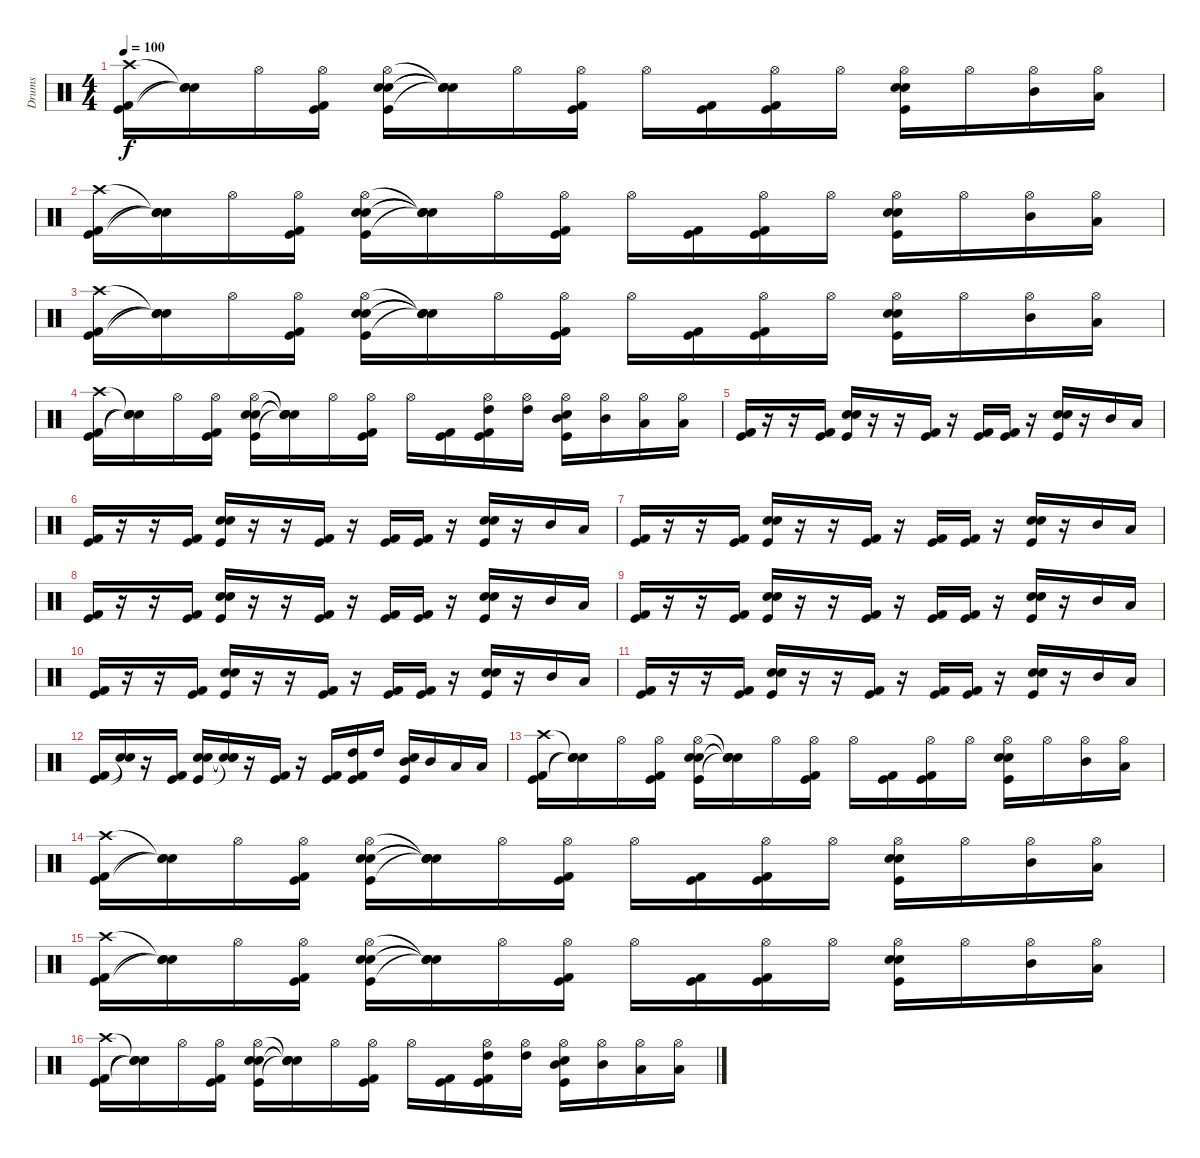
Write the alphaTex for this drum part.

\track ("Drums" "Drums") {instrument percussion}
\staff {score}
\articulation defaults
\ts (4 4)
\tempo 100
\clef neutral
\ks c
("Kick (hit) 2" "Kick (hit)" "Crash high (hit)").16{dy f} ("Snare (hit)"{t} "Snare (hit)"{t} "Snare (hit)"{t}).16 "Hi-Hat (open)".16 ("Kick (hit)" "Kick (hit) 2" "Hi-Hat (open)").16 ("Snare (hit) 2" "Kick (hit)" "Electric Snare (hit)" "Hi-Hat (open)").16 ("Snare (hit)"{t} "Snare (hit)"{t} "Snare (hit)"{t} "Snare (hit)"{t}).16 "Hi-Hat (open)".16 ("Kick (hit)" "Kick (hit) 2" "Hi-Hat (open)").16 "Hi-Hat (open)".16 ("Kick (hit)" "Kick (hit) 2").16 ("Kick (hit)" "Kick (hit) 2" "Hi-Hat (open)").16 "Hi-Hat (open)".16 ("Snare (hit) 2" "Kick (hit)" "Electric Snare (hit)" "Hi-Hat (open)").16 "Hi-Hat (open)".16 ("Mid Tom (hit)" "Hi-Hat (open)").16 ("Low Tom (hit)" "Hi-Hat (open)").16 |
("Kick (hit) 2" "Kick (hit)" "Crash high (hit)").16 ("Snare (hit)"{t} "Snare (hit)"{t} "Snare (hit)"{t}).16 "Hi-Hat (open)".16 ("Kick (hit)" "Kick (hit) 2" "Hi-Hat (open)").16 ("Snare (hit) 2" "Kick (hit)" "Electric Snare (hit)" "Hi-Hat (open)").16 ("Snare (hit)"{t} "Snare (hit)"{t} "Snare (hit)"{t} "Snare (hit)"{t}).16 "Hi-Hat (open)".16 ("Kick (hit)" "Kick (hit) 2" "Hi-Hat (open)").16 "Hi-Hat (open)".16 ("Kick (hit)" "Kick (hit) 2").16 ("Kick (hit)" "Kick (hit) 2" "Hi-Hat (open)").16 "Hi-Hat (open)".16 ("Snare (hit) 2" "Kick (hit)" "Electric Snare (hit)" "Hi-Hat (open)").16 "Hi-Hat (open)".16 ("Mid Tom (hit)" "Hi-Hat (open)").16 ("Low Tom (hit)" "Hi-Hat (open)").16 |
("Kick (hit) 2" "Kick (hit)" "Crash high (hit)").16 ("Snare (hit)"{t} "Snare (hit)"{t} "Snare (hit)"{t}).16 "Hi-Hat (open)".16 ("Kick (hit)" "Kick (hit) 2" "Hi-Hat (open)").16 ("Snare (hit) 2" "Kick (hit)" "Electric Snare (hit)" "Hi-Hat (open)").16 ("Snare (hit)"{t} "Snare (hit)"{t} "Snare (hit)"{t} "Snare (hit)"{t}).16 "Hi-Hat (open)".16 ("Kick (hit)" "Kick (hit) 2" "Hi-Hat (open)").16 "Hi-Hat (open)".16 ("Kick (hit)" "Kick (hit) 2").16 ("Kick (hit)" "Kick (hit) 2" "Hi-Hat (open)").16 "Hi-Hat (open)".16 ("Snare (hit) 2" "Kick (hit)" "Electric Snare (hit)" "Hi-Hat (open)").16 "Hi-Hat (open)".16 ("Mid Tom (hit)" "Hi-Hat (open)").16 ("Low Tom (hit)" "Hi-Hat (open)").16 |
("Kick (hit) 2" "Kick (hit)" "Crash high (hit)").16 ("Snare (hit)"{t} "Snare (hit)"{t} "Snare (hit)"{t}).16 "Hi-Hat (open)".16 ("Kick (hit)" "Kick (hit) 2" "Hi-Hat (open)").16 ("Snare (hit) 2" "Kick (hit)" "Electric Snare (hit)" "Hi-Hat (open)").16 ("Snare (hit)"{t} "Snare (hit)"{t} "Snare (hit)"{t} "Snare (hit)"{t}).16 "Hi-Hat (open)".16 ("Kick (hit)" "Kick (hit) 2" "Hi-Hat (open)").16 "Hi-Hat (open)".16 ("Kick (hit)" "Kick (hit) 2").16 ("High Tom (hit)" "Kick (hit)" "Kick (hit) 2" "Hi-Hat (open)").16 ("High Tom (hit)" "Hi-Hat (open)").16 ("Mid Tom (hit)" "Kick (hit)" "Electric Snare (hit)" "Hi-Hat (open)").16 ("Mid Tom (hit)" "Hi-Hat (open)").16 ("Low Tom (hit)" "Hi-Hat (open)").16 ("Low Floor Tom (hit)" "Hi-Hat (open)").16 |
("Kick (hit) 2" "Kick (hit)").16 r.16 r.16 ("Kick (hit)" "Kick (hit) 2").16 ("Snare (hit) 2" "Kick (hit)" "Electric Snare (hit)").16 r.16 r.16 ("Kick (hit)" "Kick (hit) 2").16 r.16 ("Kick (hit)" "Kick (hit) 2").16 ("Kick (hit)" "Kick (hit) 2").16 r.16 ("Snare (hit) 2" "Kick (hit)" "Electric Snare (hit)").16 r.16 "Mid Tom (hit)".16 "Low Tom (hit)".16 |
("Kick (hit) 2" "Kick (hit)").16 r.16 r.16 ("Kick (hit)" "Kick (hit) 2").16 ("Snare (hit) 2" "Kick (hit)" "Electric Snare (hit)").16 r.16 r.16 ("Kick (hit)" "Kick (hit) 2").16 r.16 ("Kick (hit)" "Kick (hit) 2").16 ("Kick (hit)" "Kick (hit) 2").16 r.16 ("Snare (hit) 2" "Kick (hit)" "Electric Snare (hit)").16 r.16 "Mid Tom (hit)".16 "Low Tom (hit)".16 |
("Kick (hit) 2" "Kick (hit)").16 r.16 r.16 ("Kick (hit)" "Kick (hit) 2").16 ("Snare (hit) 2" "Kick (hit)" "Electric Snare (hit)").16 r.16 r.16 ("Kick (hit)" "Kick (hit) 2").16 r.16 ("Kick (hit)" "Kick (hit) 2").16 ("Kick (hit)" "Kick (hit) 2").16 r.16 ("Snare (hit) 2" "Kick (hit)" "Electric Snare (hit)").16 r.16 "Mid Tom (hit)".16 "Low Tom (hit)".16 |
("Kick (hit) 2" "Kick (hit)").16 r.16 r.16 ("Kick (hit)" "Kick (hit) 2").16 ("Snare (hit) 2" "Kick (hit)" "Electric Snare (hit)").16 r.16 r.16 ("Kick (hit)" "Kick (hit) 2").16 r.16 ("Kick (hit)" "Kick (hit) 2").16 ("Kick (hit)" "Kick (hit) 2").16 r.16 ("Snare (hit) 2" "Kick (hit)" "Electric Snare (hit)").16 r.16 "Mid Tom (hit)".16 "Low Tom (hit)".16 |
("Kick (hit) 2" "Kick (hit)").16 r.16 r.16 ("Kick (hit)" "Kick (hit) 2").16 ("Snare (hit) 2" "Kick (hit)" "Electric Snare (hit)").16 r.16 r.16 ("Kick (hit)" "Kick (hit) 2").16 r.16 ("Kick (hit)" "Kick (hit) 2").16 ("Kick (hit)" "Kick (hit) 2").16 r.16 ("Snare (hit) 2" "Kick (hit)" "Electric Snare (hit)").16 r.16 "Mid Tom (hit)".16 "Low Tom (hit)".16 |
("Kick (hit) 2" "Kick (hit)").16 r.16 r.16 ("Kick (hit)" "Kick (hit) 2").16 ("Snare (hit) 2" "Kick (hit)" "Electric Snare (hit)").16 r.16 r.16 ("Kick (hit)" "Kick (hit) 2").16 r.16 ("Kick (hit)" "Kick (hit) 2").16 ("Kick (hit)" "Kick (hit) 2").16 r.16 ("Snare (hit) 2" "Kick (hit)" "Electric Snare (hit)").16 r.16 "Mid Tom (hit)".16 "Low Tom (hit)".16 |
("Kick (hit) 2" "Kick (hit)").16 r.16 r.16 ("Kick (hit)" "Kick (hit) 2").16 ("Snare (hit) 2" "Kick (hit)" "Electric Snare (hit)").16 r.16 r.16 ("Kick (hit)" "Kick (hit) 2").16 r.16 ("Kick (hit)" "Kick (hit) 2").16 ("Kick (hit)" "Kick (hit) 2").16 r.16 ("Snare (hit) 2" "Kick (hit)" "Electric Snare (hit)").16 r.16 "Mid Tom (hit)".16 "Low Tom (hit)".16 |
("Kick (hit) 2" "Kick (hit)").16 ("Snare (hit)"{t} "Snare (hit)"{t}).16 r.16 ("Kick (hit)" "Kick (hit) 2").16 ("Snare (hit) 2" "Kick (hit)" "Electric Snare (hit)").16 ("Snare (hit)"{t} "Snare (hit)"{t} "Snare (hit)"{t}).16 r.16 ("Kick (hit)" "Kick (hit) 2").16 r.16 ("Kick (hit)" "Kick (hit) 2").16 ("High Tom (hit)" "Kick (hit)" "Kick (hit) 2").16 "High Tom (hit)".16 ("Mid Tom (hit)" "Kick (hit)" "Electric Snare (hit)").16 "Mid Tom (hit)".16 "Low Tom (hit)".16 "Low Floor Tom (hit)".16 |
("Kick (hit) 2" "Kick (hit)" "Crash high (hit)").16 ("Snare (hit)"{t} "Snare (hit)"{t} "Snare (hit)"{t}).16 "Hi-Hat (open)".16 ("Kick (hit)" "Kick (hit) 2" "Hi-Hat (open)").16 ("Snare (hit) 2" "Kick (hit)" "Electric Snare (hit)" "Hi-Hat (open)").16 ("Snare (hit)"{t} "Snare (hit)"{t} "Snare (hit)"{t} "Snare (hit)"{t}).16 "Hi-Hat (open)".16 ("Kick (hit)" "Kick (hit) 2" "Hi-Hat (open)").16 "Hi-Hat (open)".16 ("Kick (hit)" "Kick (hit) 2").16 ("Kick (hit)" "Kick (hit) 2" "Hi-Hat (open)").16 "Hi-Hat (open)".16 ("Snare (hit) 2" "Kick (hit)" "Electric Snare (hit)" "Hi-Hat (open)").16 "Hi-Hat (open)".16 ("Mid Tom (hit)" "Hi-Hat (open)").16 ("Low Tom (hit)" "Hi-Hat (open)").16 |
("Kick (hit) 2" "Kick (hit)" "Crash high (hit)").16 ("Snare (hit)"{t} "Snare (hit)"{t} "Snare (hit)"{t}).16 "Hi-Hat (open)".16 ("Kick (hit)" "Kick (hit) 2" "Hi-Hat (open)").16 ("Snare (hit) 2" "Kick (hit)" "Electric Snare (hit)" "Hi-Hat (open)").16 ("Snare (hit)"{t} "Snare (hit)"{t} "Snare (hit)"{t} "Snare (hit)"{t}).16 "Hi-Hat (open)".16 ("Kick (hit)" "Kick (hit) 2" "Hi-Hat (open)").16 "Hi-Hat (open)".16 ("Kick (hit)" "Kick (hit) 2").16 ("Kick (hit)" "Kick (hit) 2" "Hi-Hat (open)").16 "Hi-Hat (open)".16 ("Snare (hit) 2" "Kick (hit)" "Electric Snare (hit)" "Hi-Hat (open)").16 "Hi-Hat (open)".16 ("Mid Tom (hit)" "Hi-Hat (open)").16 ("Low Tom (hit)" "Hi-Hat (open)").16 |
("Kick (hit) 2" "Kick (hit)" "Crash high (hit)").16 ("Snare (hit)"{t} "Snare (hit)"{t} "Snare (hit)"{t}).16 "Hi-Hat (open)".16 ("Kick (hit)" "Kick (hit) 2" "Hi-Hat (open)").16 ("Snare (hit) 2" "Kick (hit)" "Electric Snare (hit)" "Hi-Hat (open)").16 ("Snare (hit)"{t} "Snare (hit)"{t} "Snare (hit)"{t} "Snare (hit)"{t}).16 "Hi-Hat (open)".16 ("Kick (hit)" "Kick (hit) 2" "Hi-Hat (open)").16 "Hi-Hat (open)".16 ("Kick (hit)" "Kick (hit) 2").16 ("Kick (hit)" "Kick (hit) 2" "Hi-Hat (open)").16 "Hi-Hat (open)".16 ("Snare (hit) 2" "Kick (hit)" "Electric Snare (hit)" "Hi-Hat (open)").16 "Hi-Hat (open)".16 ("Mid Tom (hit)" "Hi-Hat (open)").16 ("Low Tom (hit)" "Hi-Hat (open)").16 |
("Kick (hit) 2" "Kick (hit)" "Crash high (hit)").16 ("Snare (hit)"{t} "Snare (hit)"{t} "Snare (hit)"{t}).16 "Hi-Hat (open)".16 ("Kick (hit)" "Kick (hit) 2" "Hi-Hat (open)").16 ("Snare (hit) 2" "Kick (hit)" "Electric Snare (hit)" "Hi-Hat (open)").16 ("Snare (hit)"{t} "Snare (hit)"{t} "Snare (hit)"{t} "Snare (hit)"{t}).16 "Hi-Hat (open)".16 ("Kick (hit)" "Kick (hit) 2" "Hi-Hat (open)").16 "Hi-Hat (open)".16 ("Kick (hit)" "Kick (hit) 2").16 ("High Tom (hit)" "Kick (hit)" "Kick (hit) 2" "Hi-Hat (open)").16 ("High Tom (hit)" "Hi-Hat (open)").16 ("Mid Tom (hit)" "Kick (hit)" "Electric Snare (hit)" "Hi-Hat (open)").16 ("Mid Tom (hit)" "Hi-Hat (open)").16 ("Low Tom (hit)" "Hi-Hat (open)").16 ("Low Floor Tom (hit)" "Hi-Hat (open)").16
